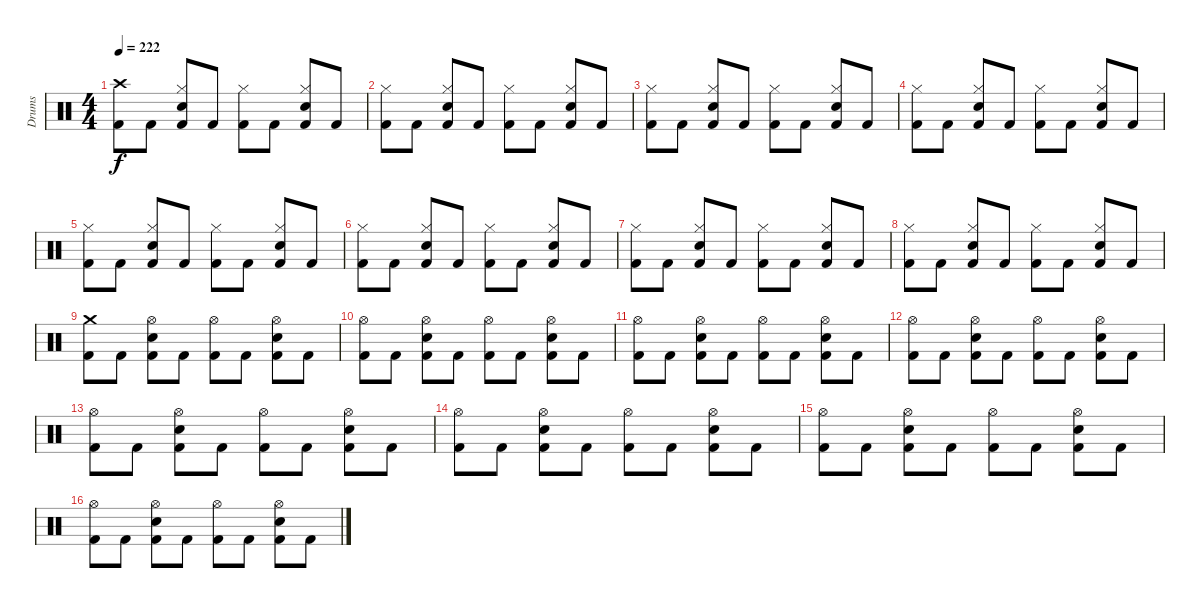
\track ("Drums" "Drums") {instrument percussion}
\staff {score}
\articulation defaults
\ts (4 4)
\tempo 222
\clef neutral
\ks c
("Crash high (hit)" "Kick (hit) 2").8{dy f} "Kick (hit) 2".8 ("Hi-Hat (closed)" "Electric Snare (hit)" "Kick (hit) 2").8 "Kick (hit) 2".8 ("Hi-Hat (closed)" "Kick (hit) 2").8 "Kick (hit) 2".8 ("Hi-Hat (closed)" "Electric Snare (hit)" "Kick (hit) 2").8 "Kick (hit) 2".8 |
("Hi-Hat (closed)" "Kick (hit) 2").8 "Kick (hit) 2".8 ("Hi-Hat (closed)" "Electric Snare (hit)" "Kick (hit) 2").8 "Kick (hit) 2".8 ("Hi-Hat (closed)" "Kick (hit) 2").8 "Kick (hit) 2".8 ("Hi-Hat (closed)" "Electric Snare (hit)" "Kick (hit) 2").8 "Kick (hit) 2".8 |
("Hi-Hat (closed)" "Kick (hit) 2").8 "Kick (hit) 2".8 ("Hi-Hat (closed)" "Electric Snare (hit)" "Kick (hit) 2").8 "Kick (hit) 2".8 ("Hi-Hat (closed)" "Kick (hit) 2").8 "Kick (hit) 2".8 ("Hi-Hat (closed)" "Electric Snare (hit)" "Kick (hit) 2").8 "Kick (hit) 2".8 |
("Hi-Hat (closed)" "Kick (hit) 2").8 "Kick (hit) 2".8 ("Hi-Hat (closed)" "Electric Snare (hit)" "Kick (hit) 2").8 "Kick (hit) 2".8 ("Hi-Hat (closed)" "Kick (hit) 2").8 "Kick (hit) 2".8 ("Hi-Hat (closed)" "Electric Snare (hit)" "Kick (hit) 2").8 "Kick (hit) 2".8 |
("Hi-Hat (closed)" "Kick (hit) 2").8 "Kick (hit) 2".8 ("Hi-Hat (closed)" "Electric Snare (hit)" "Kick (hit) 2").8 "Kick (hit) 2".8 ("Hi-Hat (closed)" "Kick (hit) 2").8 "Kick (hit) 2".8 ("Hi-Hat (closed)" "Electric Snare (hit)" "Kick (hit) 2").8 "Kick (hit) 2".8 |
("Hi-Hat (closed)" "Kick (hit) 2").8 "Kick (hit) 2".8 ("Hi-Hat (closed)" "Electric Snare (hit)" "Kick (hit) 2").8 "Kick (hit) 2".8 ("Hi-Hat (closed)" "Kick (hit) 2").8 "Kick (hit) 2".8 ("Hi-Hat (closed)" "Electric Snare (hit)" "Kick (hit) 2").8 "Kick (hit) 2".8 |
("Hi-Hat (closed)" "Kick (hit) 2").8 "Kick (hit) 2".8 ("Hi-Hat (closed)" "Electric Snare (hit)" "Kick (hit) 2").8 "Kick (hit) 2".8 ("Hi-Hat (closed)" "Kick (hit) 2").8 "Kick (hit) 2".8 ("Hi-Hat (closed)" "Electric Snare (hit)" "Kick (hit) 2").8 "Kick (hit) 2".8 |
("Hi-Hat (closed)" "Kick (hit) 2").8 "Kick (hit) 2".8 ("Hi-Hat (closed)" "Electric Snare (hit)" "Kick (hit) 2").8 "Kick (hit) 2".8 ("Hi-Hat (closed)" "Kick (hit) 2").8 "Kick (hit) 2".8 ("Hi-Hat (closed)" "Electric Snare (hit)" "Kick (hit) 2").8 "Kick (hit) 2".8 |
("Crash medium (hit)" "Kick (hit) 2").8 "Kick (hit) 2".8 ("Hi-Hat (open)" "Electric Snare (hit)" "Kick (hit) 2").8 "Kick (hit) 2".8 ("Hi-Hat (open)" "Kick (hit) 2").8 "Kick (hit) 2".8 ("Hi-Hat (open)" "Electric Snare (hit)" "Kick (hit) 2").8 "Kick (hit) 2".8 |
("Hi-Hat (open)" "Kick (hit) 2").8 "Kick (hit) 2".8 ("Hi-Hat (open)" "Electric Snare (hit)" "Kick (hit) 2").8 "Kick (hit) 2".8 ("Hi-Hat (open)" "Kick (hit) 2").8 "Kick (hit) 2".8 ("Hi-Hat (open)" "Electric Snare (hit)" "Kick (hit) 2").8 "Kick (hit) 2".8 |
("Hi-Hat (open)" "Kick (hit) 2").8 "Kick (hit) 2".8 ("Hi-Hat (open)" "Electric Snare (hit)" "Kick (hit) 2").8 "Kick (hit) 2".8 ("Hi-Hat (open)" "Kick (hit) 2").8 "Kick (hit) 2".8 ("Hi-Hat (open)" "Electric Snare (hit)" "Kick (hit) 2").8 "Kick (hit) 2".8 |
("Hi-Hat (open)" "Kick (hit) 2").8 "Kick (hit) 2".8 ("Hi-Hat (open)" "Electric Snare (hit)" "Kick (hit) 2").8 "Kick (hit) 2".8 ("Hi-Hat (open)" "Kick (hit) 2").8 "Kick (hit) 2".8 ("Hi-Hat (open)" "Electric Snare (hit)" "Kick (hit) 2").8 "Kick (hit) 2".8 |
("Hi-Hat (open)" "Kick (hit) 2").8 "Kick (hit) 2".8 ("Hi-Hat (open)" "Electric Snare (hit)" "Kick (hit) 2").8 "Kick (hit) 2".8 ("Hi-Hat (open)" "Kick (hit) 2").8 "Kick (hit) 2".8 ("Hi-Hat (open)" "Electric Snare (hit)" "Kick (hit) 2").8 "Kick (hit) 2".8 |
("Hi-Hat (open)" "Kick (hit) 2").8 "Kick (hit) 2".8 ("Hi-Hat (open)" "Electric Snare (hit)" "Kick (hit) 2").8 "Kick (hit) 2".8 ("Hi-Hat (open)" "Kick (hit) 2").8 "Kick (hit) 2".8 ("Hi-Hat (open)" "Electric Snare (hit)" "Kick (hit) 2").8 "Kick (hit) 2".8 |
("Hi-Hat (open)" "Kick (hit) 2").8 "Kick (hit) 2".8 ("Hi-Hat (open)" "Electric Snare (hit)" "Kick (hit) 2").8 "Kick (hit) 2".8 ("Hi-Hat (open)" "Kick (hit) 2").8 "Kick (hit) 2".8 ("Hi-Hat (open)" "Electric Snare (hit)" "Kick (hit) 2").8 "Kick (hit) 2".8 |
("Hi-Hat (open)" "Kick (hit) 2").8 "Kick (hit) 2".8 ("Hi-Hat (open)" "Electric Snare (hit)" "Kick (hit) 2").8 "Kick (hit) 2".8 ("Hi-Hat (open)" "Kick (hit) 2").8 "Kick (hit) 2".8 ("Hi-Hat (open)" "Electric Snare (hit)" "Kick (hit) 2").8 "Kick (hit) 2".8
